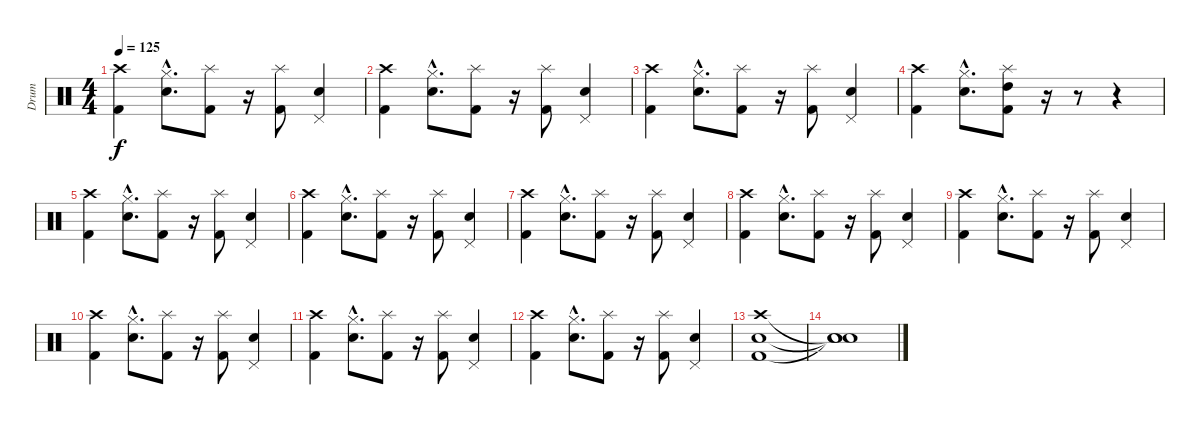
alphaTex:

\track ("Drum" "Drum") {instrument percussion}
\staff {score}
\articulation defaults
\ts (4 4)
\tempo 125
\clef neutral
\ks c
("Kick (hit) 2" "Crash high (hit)").4{dy f} ("Snare (hit) 2"{hac} "Hi-Hat (closed)"{hac}).8{d} ("Kick (hit) 2" "Splash (hit)").8 r.16 ("Kick (hit) 2" "Splash (hit)").8 ("Snare (hit) 2" "Pedal Hi-Hat (hit)").4 |
("Kick (hit) 2" "Crash high (hit)").4 ("Snare (hit) 2"{hac} "Hi-Hat (closed)"{hac}).8{d} ("Kick (hit) 2" "Splash (hit)").8 r.16 ("Kick (hit) 2" "Splash (hit)").8 ("Snare (hit) 2" "Pedal Hi-Hat (hit)").4 |
("Kick (hit) 2" "Crash high (hit)").4 ("Snare (hit) 2"{hac} "Hi-Hat (closed)"{hac}).8{d} ("Kick (hit) 2" "Splash (hit)").8 r.16 ("Kick (hit) 2" "Splash (hit)").8 ("Snare (hit) 2" "Pedal Hi-Hat (hit)").4 |
("Kick (hit) 2" "Crash high (hit)").4 ("Snare (hit) 2"{hac} "Hi-Hat (closed)"{hac}).8{d} ("Kick (hit) 2" "Splash (hit)" "High Tom (hit)").8 r.16 r.8 r.4 |
("Kick (hit) 2" "Crash high (hit)").4 ("Snare (hit) 2"{hac} "Hi-Hat (closed)"{hac}).8{d} ("Kick (hit) 2" "Splash (hit)").8 r.16 ("Kick (hit) 2" "Splash (hit)").8 ("Snare (hit) 2" "Pedal Hi-Hat (hit)").4 |
("Kick (hit) 2" "Crash high (hit)").4 ("Snare (hit) 2"{hac} "Hi-Hat (closed)"{hac}).8{d} ("Kick (hit) 2" "Splash (hit)").8 r.16 ("Kick (hit) 2" "Splash (hit)").8 ("Snare (hit) 2" "Pedal Hi-Hat (hit)").4 |
("Kick (hit) 2" "Crash high (hit)").4 ("Snare (hit) 2"{hac} "Hi-Hat (closed)"{hac}).8{d} ("Kick (hit) 2" "Splash (hit)").8 r.16 ("Kick (hit) 2" "Splash (hit)").8 ("Snare (hit) 2" "Pedal Hi-Hat (hit)").4 |
("Kick (hit) 2" "Crash high (hit)").4 ("Snare (hit) 2"{hac} "Hi-Hat (closed)"{hac}).8{d} ("Kick (hit) 2" "Splash (hit)").8 r.16 ("Kick (hit) 2" "Splash (hit)").8 ("Snare (hit) 2" "Pedal Hi-Hat (hit)").4 |
("Kick (hit) 2" "Crash high (hit)").4 ("Snare (hit) 2"{hac} "Hi-Hat (closed)"{hac}).8{d} ("Kick (hit) 2" "Splash (hit)").8 r.16 ("Kick (hit) 2" "Splash (hit)").8 ("Snare (hit) 2" "Pedal Hi-Hat (hit)").4 |
("Kick (hit) 2" "Crash high (hit)").4 ("Snare (hit) 2"{hac} "Hi-Hat (closed)"{hac}).8{d} ("Kick (hit) 2" "Splash (hit)").8 r.16 ("Kick (hit) 2" "Splash (hit)").8 ("Snare (hit) 2" "Pedal Hi-Hat (hit)").4 |
("Kick (hit) 2" "Crash high (hit)").4 ("Snare (hit) 2"{hac} "Hi-Hat (closed)"{hac}).8{d} ("Kick (hit) 2" "Splash (hit)").8 r.16 ("Kick (hit) 2" "Splash (hit)").8 ("Snare (hit) 2" "Pedal Hi-Hat (hit)").4 |
("Kick (hit) 2" "Crash high (hit)").4 ("Snare (hit) 2"{hac} "Hi-Hat (closed)"{hac}).8{d} ("Kick (hit) 2" "Splash (hit)").8 r.16 ("Kick (hit) 2" "Splash (hit)").8 ("Snare (hit) 2" "Pedal Hi-Hat (hit)").4 |
("Kick (hit) 2" "Crash high (hit)" "Snare (hit) 2").1 |
("Snare (hit)"{t} "Snare (hit)"{t} "Snare (hit)"{t}).1
